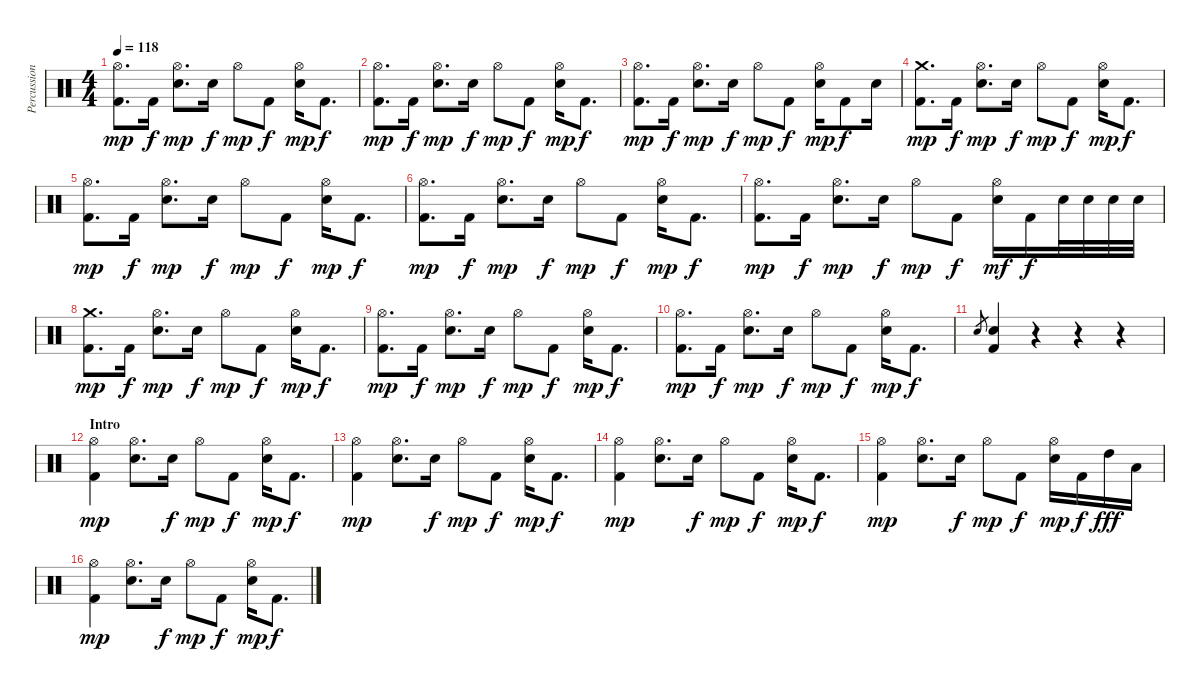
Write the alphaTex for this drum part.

\track ("Percussions" "Percussion") {instrument percussion}
\staff {score}
\articulation defaults
\ts (4 4)
\tempo 118
\clef neutral
\ks c
("Hi-Hat (open)" "Kick (hit) 2").8{d dy mp} "Kick (hit) 2".16{dy f} ("Hi-Hat (open)" "Snare (hit) 2").8{d dy mp} "Electric Snare (hit)".16{dy f} "Hi-Hat (open)".8{dy mp} "Kick (hit) 2".8{dy f} ("Hi-Hat (open)" "Snare (hit) 2").16{dy mp} "Kick (hit) 2".8{d dy f} |
("Hi-Hat (open)" "Kick (hit) 2").8{d dy mp} "Kick (hit) 2".16{dy f} ("Hi-Hat (open)" "Snare (hit) 2").8{d dy mp} "Electric Snare (hit)".16{dy f} "Hi-Hat (open)".8{dy mp} "Kick (hit) 2".8{dy f} ("Hi-Hat (open)" "Snare (hit) 2").16{dy mp} "Kick (hit) 2".8{d dy f} |
("Hi-Hat (open)" "Kick (hit) 2").8{d dy mp} "Kick (hit) 2".16{dy f} ("Hi-Hat (open)" "Snare (hit) 2").8{d dy mp} "Electric Snare (hit)".16{dy f} "Hi-Hat (open)".8{dy mp} "Kick (hit) 2".8{dy f} ("Hi-Hat (open)" "Snare (hit) 2").16{dy mp} "Kick (hit) 2".8{dy f} "Snare (hit) 2".16 |
("Crash medium (hit)" "Kick (hit) 2").8{d dy mp} "Kick (hit) 2".16{dy f} ("Hi-Hat (open)" "Snare (hit) 2").8{d dy mp} "Electric Snare (hit)".16{dy f} "Hi-Hat (open)".8{dy mp} "Kick (hit) 2".8{dy f} ("Hi-Hat (open)" "Snare (hit) 2").16{dy mp} "Kick (hit) 2".8{d dy f} |
("Hi-Hat (open)" "Kick (hit) 2").8{d dy mp} "Kick (hit) 2".16{dy f} ("Hi-Hat (open)" "Snare (hit) 2").8{d dy mp} "Electric Snare (hit)".16{dy f} "Hi-Hat (open)".8{dy mp} "Kick (hit) 2".8{dy f} ("Hi-Hat (open)" "Snare (hit) 2").16{dy mp} "Kick (hit) 2".8{d dy f} |
("Hi-Hat (open)" "Kick (hit) 2").8{d dy mp} "Kick (hit) 2".16{dy f} ("Hi-Hat (open)" "Snare (hit) 2").8{d dy mp} "Electric Snare (hit)".16{dy f} "Hi-Hat (open)".8{dy mp} "Kick (hit) 2".8{dy f} ("Hi-Hat (open)" "Snare (hit) 2").16{dy mp} "Kick (hit) 2".8{d dy f} |
("Hi-Hat (open)" "Kick (hit) 2").8{d dy mp} "Kick (hit) 2".16{dy f} ("Hi-Hat (open)" "Snare (hit) 2").8{d dy mp} "Electric Snare (hit)".16{dy f} "Hi-Hat (open)".8{dy mp} "Kick (hit) 2".8{dy f} ("Hi-Hat (open)" "Snare (hit) 2").16{dy mf} "Kick (hit) 2".16{dy f} "Snare (hit) 2".32 "Snare (hit) 2".32 "Snare (hit) 2".32 "Snare (hit) 2".32 |
("Crash medium (hit)" "Kick (hit) 2").8{d dy mp} "Kick (hit) 2".16{dy f} ("Hi-Hat (open)" "Snare (hit) 2").8{d dy mp} "Electric Snare (hit)".16{dy f} "Hi-Hat (open)".8{dy mp} "Kick (hit) 2".8{dy f} ("Hi-Hat (open)" "Snare (hit) 2").16{dy mp} "Kick (hit) 2".8{d dy f} |
("Hi-Hat (open)" "Kick (hit) 2").8{d dy mp} "Kick (hit) 2".16{dy f} ("Hi-Hat (open)" "Snare (hit) 2").8{d dy mp} "Electric Snare (hit)".16{dy f} "Hi-Hat (open)".8{dy mp} "Kick (hit) 2".8{dy f} ("Hi-Hat (open)" "Snare (hit) 2").16{dy mp} "Kick (hit) 2".8{d dy f} |
("Hi-Hat (open)" "Kick (hit) 2").8{d dy mp} "Kick (hit) 2".16{dy f} ("Hi-Hat (open)" "Snare (hit) 2").8{d dy mp} "Electric Snare (hit)".16{dy f} "Hi-Hat (open)".8{dy mp} "Kick (hit) 2".8{dy f} ("Hi-Hat (open)" "Snare (hit) 2").16{dy mp} "Kick (hit) 2".8{d dy f} |
"Snare (hit) 2".8{gr} ("Snare (hit) 2" "Kick (hit) 2").4 r.4 r.4 r.4 |
\section ("" "Intro")
("Hi-Hat (open)" "Kick (hit) 2").4{dy mp} ("Hi-Hat (open)" "Snare (hit) 2").8{d} "Snare (hit) 2".16{dy f} "Hi-Hat (open)".8{dy mp} "Kick (hit) 2".8{dy f} ("Hi-Hat (open)" "Snare (hit) 2").16{dy mp} "Kick (hit) 2".8{d dy f} |
("Hi-Hat (open)" "Kick (hit) 2").4{dy mp} ("Hi-Hat (open)" "Snare (hit) 2").8{d} "Snare (hit) 2".16{dy f} "Hi-Hat (open)".8{dy mp} "Kick (hit) 2".8{dy f} ("Hi-Hat (open)" "Snare (hit) 2").16{dy mp} "Kick (hit) 2".8{d dy f} |
("Hi-Hat (open)" "Kick (hit) 2").4{dy mp} ("Hi-Hat (open)" "Snare (hit) 2").8{d} "Snare (hit) 2".16{dy f} "Hi-Hat (open)".8{dy mp} "Kick (hit) 2".8{dy f} ("Hi-Hat (open)" "Snare (hit) 2").16{dy mp} "Kick (hit) 2".8{d dy f} |
("Hi-Hat (open)" "Kick (hit) 2").4{dy mp} ("Hi-Hat (open)" "Snare (hit) 2").8{d} "Snare (hit) 2".16{dy f} "Hi-Hat (open)".8{dy mp} "Kick (hit) 2".8{dy f} ("Hi-Hat (open)" "Snare (hit) 2").16{dy mp} "Kick (hit) 2".16{dy f} "High Tom (hit)".16{dy fff} "Low Tom (hit)".16 |
("Hi-Hat (open)" "Kick (hit) 2").4{dy mp} ("Hi-Hat (open)" "Snare (hit) 2").8{d} "Snare (hit) 2".16{dy f} "Hi-Hat (open)".8{dy mp} "Kick (hit) 2".8{dy f} ("Hi-Hat (open)" "Snare (hit) 2").16{dy mp} "Kick (hit) 2".8{d dy f}
